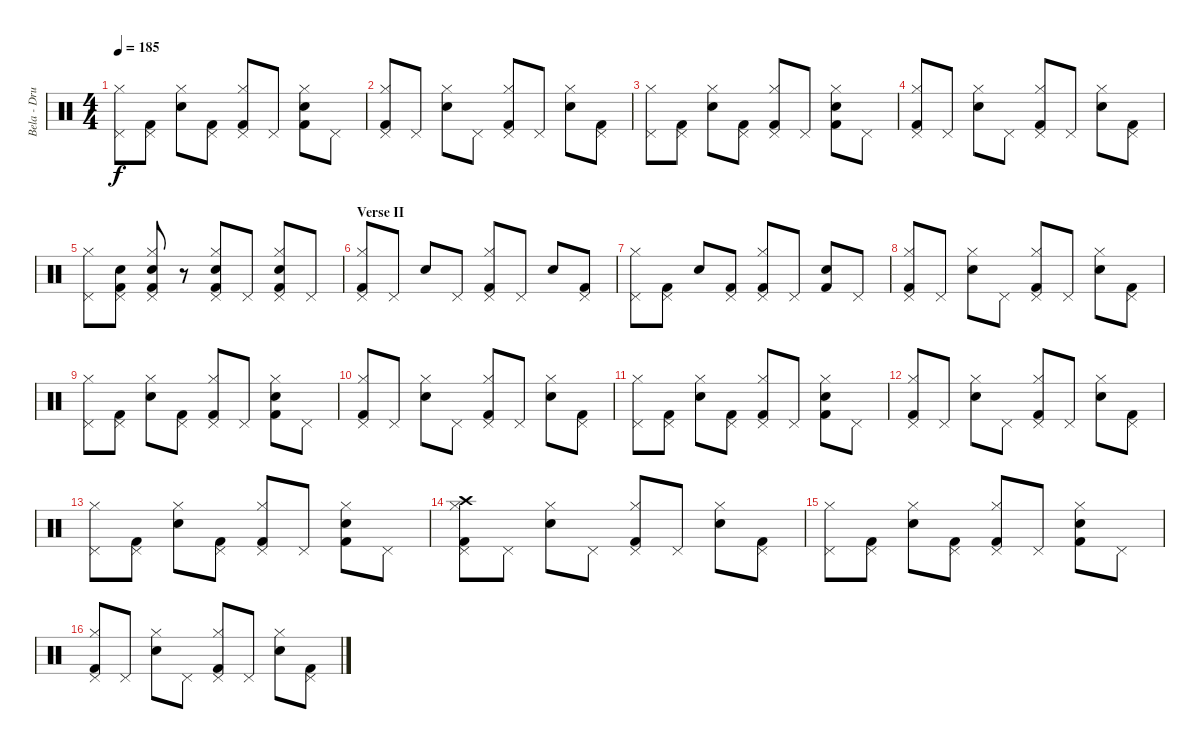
\track ("Bela - Drums" "Bela - Dru") {instrument percussion}
\staff {score}
\articulation defaults
\ts (4 4)
\tempo 185
\clef neutral
\ks c
("Pedal Hi-Hat (hit)" "Hi-Hat (closed)").8{dy f} ("Pedal Hi-Hat (hit)" "Kick (hit) 2").8 ("Hi-Hat (closed)" "Electric Snare (hit)").8 ("Pedal Hi-Hat (hit)" "Kick (hit) 2").8 ("Pedal Hi-Hat (hit)" "Hi-Hat (closed)" "Kick (hit) 2").8 "Pedal Hi-Hat (hit)".8 ("Hi-Hat (closed)" "Electric Snare (hit)" "Kick (hit) 2").8 "Pedal Hi-Hat (hit)".8 |
("Hi-Hat (closed)" "Pedal Hi-Hat (hit)" "Kick (hit) 2").8 "Pedal Hi-Hat (hit)".8 ("Hi-Hat (closed)" "Electric Snare (hit)").8 "Pedal Hi-Hat (hit)".8 ("Hi-Hat (closed)" "Kick (hit) 2" "Pedal Hi-Hat (hit)").8 "Pedal Hi-Hat (hit)".8 ("Hi-Hat (closed)" "Electric Snare (hit)").8 ("Pedal Hi-Hat (hit)" "Kick (hit) 2").8 |
("Pedal Hi-Hat (hit)" "Hi-Hat (closed)").8 ("Pedal Hi-Hat (hit)" "Kick (hit) 2").8 ("Hi-Hat (closed)" "Electric Snare (hit)").8 ("Pedal Hi-Hat (hit)" "Kick (hit) 2").8 ("Pedal Hi-Hat (hit)" "Hi-Hat (closed)" "Kick (hit) 2").8 "Pedal Hi-Hat (hit)".8 ("Hi-Hat (closed)" "Electric Snare (hit)" "Kick (hit) 2").8 "Pedal Hi-Hat (hit)".8 |
("Hi-Hat (closed)" "Pedal Hi-Hat (hit)" "Kick (hit) 2").8 "Pedal Hi-Hat (hit)".8 ("Hi-Hat (closed)" "Electric Snare (hit)").8 "Pedal Hi-Hat (hit)".8 ("Hi-Hat (closed)" "Kick (hit) 2" "Pedal Hi-Hat (hit)").8 "Pedal Hi-Hat (hit)".8 ("Hi-Hat (closed)" "Electric Snare (hit)").8 ("Pedal Hi-Hat (hit)" "Kick (hit) 2").8 |
("Pedal Hi-Hat (hit)" "Hi-Hat (closed)").8 ("Pedal Hi-Hat (hit)" "Electric Snare (hit)" "Kick (hit) 2").8 ("Hi-Hat (closed)" "Electric Snare (hit)" "Pedal Hi-Hat (hit)" "Kick (hit) 2").8 r.8 ("Pedal Hi-Hat (hit)" "Hi-Hat (closed)" "Electric Snare (hit)" "Kick (hit) 2").8 "Pedal Hi-Hat (hit)".8 ("Hi-Hat (closed)" "Electric Snare (hit)" "Pedal Hi-Hat (hit)" "Kick (hit) 2").8 "Pedal Hi-Hat (hit)".8 |
\section ("" "Verse II")
("Hi-Hat (closed)" "Pedal Hi-Hat (hit)" "Kick (hit) 2").8 "Pedal Hi-Hat (hit)".8 "Electric Snare (hit)".8 "Pedal Hi-Hat (hit)".8 ("Hi-Hat (closed)" "Kick (hit) 2" "Pedal Hi-Hat (hit)").8 "Pedal Hi-Hat (hit)".8 "Electric Snare (hit)".8 ("Pedal Hi-Hat (hit)" "Kick (hit) 2").8 |
("Hi-Hat (closed)" "Pedal Hi-Hat (hit)").8 ("Kick (hit) 2" "Pedal Hi-Hat (hit)").8 "Electric Snare (hit)".8 ("Kick (hit) 2" "Pedal Hi-Hat (hit)").8 ("Kick (hit) 2" "Hi-Hat (closed)" "Pedal Hi-Hat (hit)").8 "Pedal Hi-Hat (hit)".8 ("Kick (hit) 2" "Electric Snare (hit)").8 "Pedal Hi-Hat (hit)".8 |
("Hi-Hat (closed)" "Pedal Hi-Hat (hit)" "Kick (hit) 2").8 "Pedal Hi-Hat (hit)".8 ("Hi-Hat (closed)" "Electric Snare (hit)").8 "Pedal Hi-Hat (hit)".8 ("Hi-Hat (closed)" "Kick (hit) 2" "Pedal Hi-Hat (hit)").8 "Pedal Hi-Hat (hit)".8 ("Hi-Hat (closed)" "Electric Snare (hit)").8 ("Pedal Hi-Hat (hit)" "Kick (hit) 2").8 |
("Hi-Hat (closed)" "Pedal Hi-Hat (hit)").8 ("Kick (hit) 2" "Pedal Hi-Hat (hit)").8 ("Hi-Hat (closed)" "Electric Snare (hit)").8 ("Kick (hit) 2" "Pedal Hi-Hat (hit)").8 ("Kick (hit) 2" "Hi-Hat (closed)" "Pedal Hi-Hat (hit)").8 "Pedal Hi-Hat (hit)".8 ("Hi-Hat (closed)" "Kick (hit) 2" "Electric Snare (hit)").8 "Pedal Hi-Hat (hit)".8 |
("Hi-Hat (closed)" "Pedal Hi-Hat (hit)" "Kick (hit) 2").8 "Pedal Hi-Hat (hit)".8 ("Hi-Hat (closed)" "Electric Snare (hit)").8 "Pedal Hi-Hat (hit)".8 ("Hi-Hat (closed)" "Kick (hit) 2" "Pedal Hi-Hat (hit)").8 "Pedal Hi-Hat (hit)".8 ("Hi-Hat (closed)" "Electric Snare (hit)").8 ("Pedal Hi-Hat (hit)" "Kick (hit) 2").8 |
("Hi-Hat (closed)" "Pedal Hi-Hat (hit)").8 ("Kick (hit) 2" "Pedal Hi-Hat (hit)").8 ("Hi-Hat (closed)" "Electric Snare (hit)").8 ("Kick (hit) 2" "Pedal Hi-Hat (hit)").8 ("Kick (hit) 2" "Hi-Hat (closed)" "Pedal Hi-Hat (hit)").8 "Pedal Hi-Hat (hit)".8 ("Hi-Hat (closed)" "Kick (hit) 2" "Electric Snare (hit)").8 "Pedal Hi-Hat (hit)".8 |
("Hi-Hat (closed)" "Pedal Hi-Hat (hit)" "Kick (hit) 2").8 "Pedal Hi-Hat (hit)".8 ("Hi-Hat (closed)" "Electric Snare (hit)").8 "Pedal Hi-Hat (hit)".8 ("Hi-Hat (closed)" "Kick (hit) 2" "Pedal Hi-Hat (hit)").8 "Pedal Hi-Hat (hit)".8 ("Hi-Hat (closed)" "Electric Snare (hit)").8 ("Pedal Hi-Hat (hit)" "Kick (hit) 2").8 |
("Hi-Hat (closed)" "Pedal Hi-Hat (hit)").8 ("Kick (hit) 2" "Pedal Hi-Hat (hit)").8 ("Hi-Hat (closed)" "Electric Snare (hit)").8 ("Kick (hit) 2" "Pedal Hi-Hat (hit)").8 ("Kick (hit) 2" "Hi-Hat (closed)" "Pedal Hi-Hat (hit)").8 "Pedal Hi-Hat (hit)".8 ("Hi-Hat (closed)" "Kick (hit) 2" "Electric Snare (hit)").8 "Pedal Hi-Hat (hit)".8 |
("Crash high (hit)" "Hi-Hat (closed)" "Pedal Hi-Hat (hit)" "Kick (hit) 2").8 "Pedal Hi-Hat (hit)".8 ("Hi-Hat (closed)" "Electric Snare (hit)").8 "Pedal Hi-Hat (hit)".8 ("Hi-Hat (closed)" "Kick (hit) 2" "Pedal Hi-Hat (hit)").8 "Pedal Hi-Hat (hit)".8 ("Hi-Hat (closed)" "Electric Snare (hit)").8 ("Pedal Hi-Hat (hit)" "Kick (hit) 2").8 |
("Hi-Hat (closed)" "Pedal Hi-Hat (hit)").8 ("Kick (hit) 2" "Pedal Hi-Hat (hit)").8 ("Hi-Hat (closed)" "Electric Snare (hit)").8 ("Kick (hit) 2" "Pedal Hi-Hat (hit)").8 ("Kick (hit) 2" "Hi-Hat (closed)" "Pedal Hi-Hat (hit)").8 "Pedal Hi-Hat (hit)".8 ("Hi-Hat (closed)" "Kick (hit) 2" "Electric Snare (hit)").8 "Pedal Hi-Hat (hit)".8 |
("Hi-Hat (closed)" "Pedal Hi-Hat (hit)" "Kick (hit) 2").8 "Pedal Hi-Hat (hit)".8 ("Hi-Hat (closed)" "Electric Snare (hit)").8 "Pedal Hi-Hat (hit)".8 ("Hi-Hat (closed)" "Kick (hit) 2" "Pedal Hi-Hat (hit)").8 "Pedal Hi-Hat (hit)".8 ("Hi-Hat (closed)" "Electric Snare (hit)").8 ("Pedal Hi-Hat (hit)" "Kick (hit) 2").8
